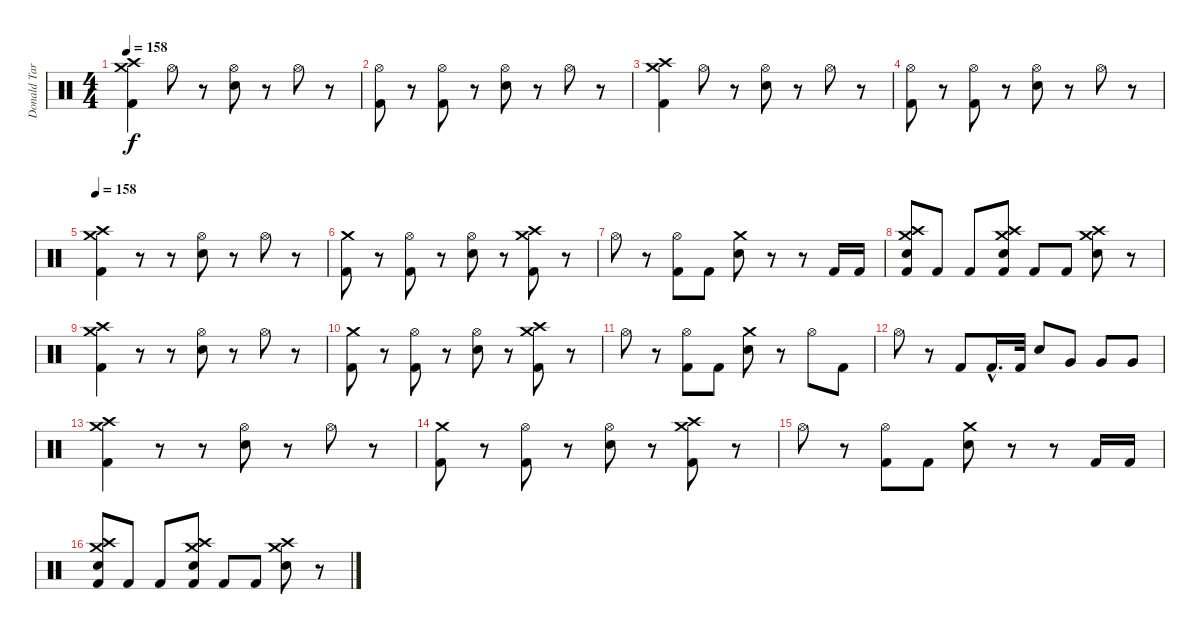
\track ("Donald Tardy (Drums)" "Donald Tar") {instrument percussion}
\staff {score}
\articulation defaults
\ts (4 4)
\tempo 158
\clef neutral
\ks c
("Kick (hit) 2" "Crash medium (hit)" "Crash high (hit)").4{dy f} "Hi-Hat (open)".8 r.8 ("Electric Snare (hit)" "Hi-Hat (open)").8 r.8 "Hi-Hat (open)".8 r.8 |
("Kick (hit) 2" "Hi-Hat (open)").8 r.8 ("Kick (hit) 2" "Hi-Hat (open)").8 r.8 ("Electric Snare (hit)" "Hi-Hat (open)").8 r.8 "Hi-Hat (open)".8 r.8 |
("Kick (hit) 2" "Crash medium (hit)" "Crash high (hit)").4 "Hi-Hat (open)".8 r.8 ("Electric Snare (hit)" "Hi-Hat (open)").8 r.8 "Hi-Hat (open)".8 r.8 |
("Kick (hit) 2" "Hi-Hat (open)").8 r.8 ("Kick (hit) 2" "Hi-Hat (open)").8 r.8 ("Electric Snare (hit)" "Hi-Hat (open)").8 r.8 "Hi-Hat (open)".8 r.8 |
\tempo 158
("Kick (hit) 2" "Crash medium (hit)" "Crash high (hit)").4 r.8 r.8 ("Electric Snare (hit)" "Hi-Hat (open)").8 r.8 "Hi-Hat (open)".8 r.8 |
("Kick (hit) 2" "Crash medium (hit)").8 r.8 ("Kick (hit) 2" "Hi-Hat (open)").8 r.8 ("Electric Snare (hit)" "Hi-Hat (open)").8 r.8 ("Kick (hit) 2" "Crash medium (hit)" "Crash high (hit)").8 r.8 |
"Hi-Hat (open)".8 r.8 ("Kick (hit) 2" "Hi-Hat (open)").8 "Kick (hit) 2".8 ("Electric Snare (hit)" "Crash medium (hit)").8 r.8 r.8 "Kick (hit) 2".16 "Kick (hit) 2".16 |
("Kick (hit) 2" "Electric Snare (hit)" "Crash medium (hit)" "Crash high (hit)").8 "Kick (hit) 2".8 "Kick (hit) 2".8 ("Kick (hit) 2" "Electric Snare (hit)" "Crash medium (hit)" "Crash high (hit)").8 "Kick (hit) 2".8 "Kick (hit) 2".8 ("Electric Snare (hit)" "Crash high (hit)" "Crash medium (hit)").8 r.8 |
("Kick (hit) 2" "Crash medium (hit)" "Crash high (hit)").4 r.8 r.8 ("Electric Snare (hit)" "Hi-Hat (open)").8 r.8 "Hi-Hat (open)".8 r.8 |
("Kick (hit) 2" "Crash medium (hit)").8 r.8 ("Kick (hit) 2" "Hi-Hat (open)").8 r.8 ("Electric Snare (hit)" "Hi-Hat (open)").8 r.8 ("Kick (hit) 2" "Crash medium (hit)" "Crash high (hit)").8 r.8 |
"Hi-Hat (open)".8 r.8 ("Kick (hit) 2" "Hi-Hat (open)").8 "Kick (hit) 2".8 ("Electric Snare (hit)" "Crash medium (hit)").8 r.8 "Hi-Hat (open)".8 "Kick (hit) 2".8 |
"Hi-Hat (open)".8 r.8 "Kick (hit) 2".8 "Kick (hit) 2"{hac}.16{d} "Kick (hit) 2".32 "Electric Snare (hit)".8 "Very Low Tom (hit)".8 "Very Low Tom (hit)".8 "Very Low Tom (hit)".8 |
("Kick (hit) 2" "Crash medium (hit)" "Crash high (hit)").4 r.8 r.8 ("Electric Snare (hit)" "Hi-Hat (open)").8 r.8 "Hi-Hat (open)".8 r.8 |
("Kick (hit) 2" "Crash medium (hit)").8 r.8 ("Kick (hit) 2" "Hi-Hat (open)").8 r.8 ("Electric Snare (hit)" "Hi-Hat (open)").8 r.8 ("Kick (hit) 2" "Crash medium (hit)" "Crash high (hit)").8 r.8 |
"Hi-Hat (open)".8 r.8 ("Kick (hit) 2" "Hi-Hat (open)").8 "Kick (hit) 2".8 ("Electric Snare (hit)" "Crash medium (hit)").8 r.8 r.8 "Kick (hit) 2".16 "Kick (hit) 2".16 |
("Kick (hit) 2" "Electric Snare (hit)" "Crash medium (hit)" "Crash high (hit)").8 "Kick (hit) 2".8 "Kick (hit) 2".8 ("Kick (hit) 2" "Electric Snare (hit)" "Crash medium (hit)" "Crash high (hit)").8 "Kick (hit) 2".8 "Kick (hit) 2".8 ("Electric Snare (hit)" "Crash high (hit)" "Crash medium (hit)").8 r.8
